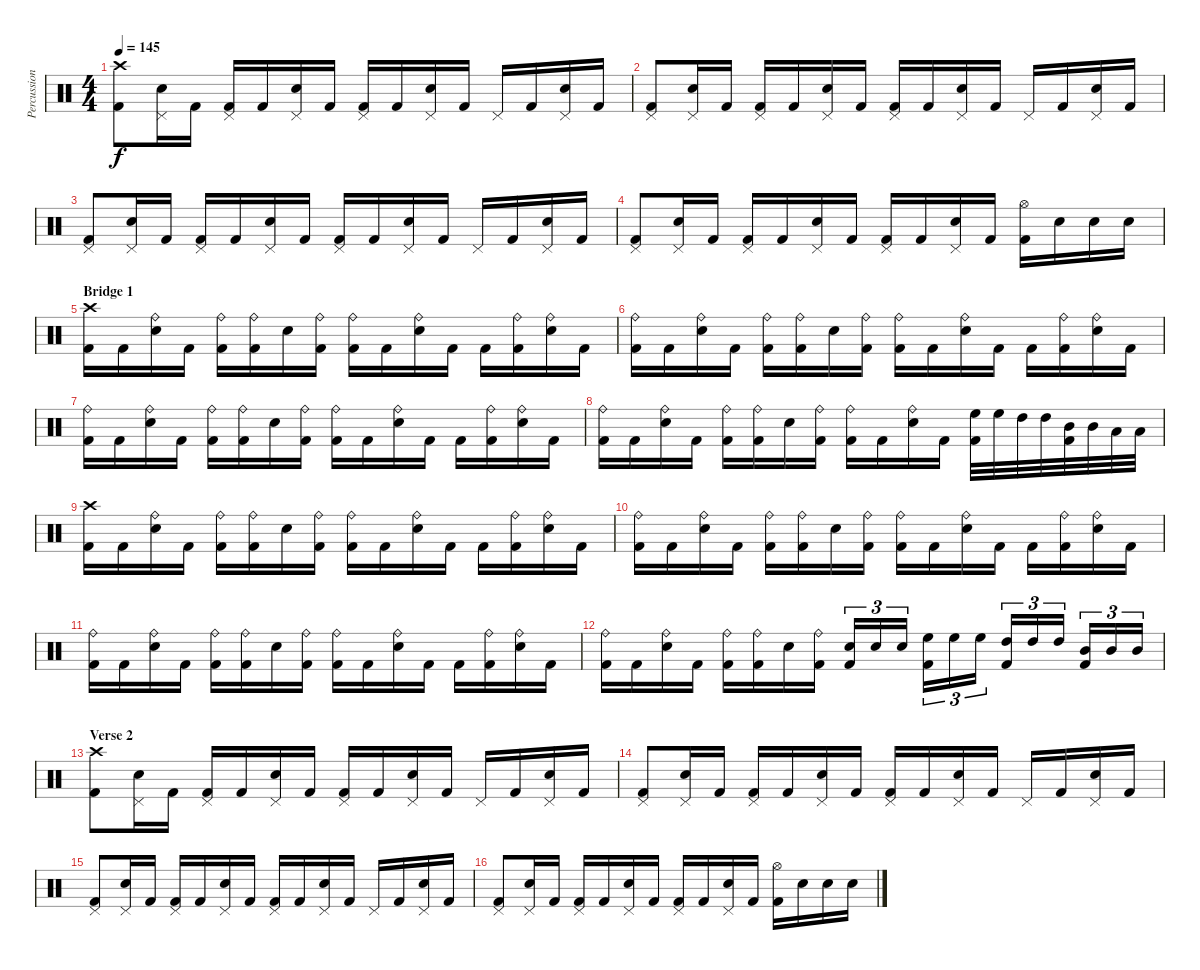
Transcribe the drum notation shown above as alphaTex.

\track ("Percussion" "Percussion") {instrument percussion}
\staff {score}
\articulation defaults
\ts (4 4)
\tempo 145
\clef neutral
\ks c
("Kick (hit) 2" "Crash high (hit)").8{dy f} ("Electric Snare (hit)" "Pedal Hi-Hat (hit)").16 "Kick (hit) 2".16 ("Kick (hit) 2" "Pedal Hi-Hat (hit)").16 "Kick (hit) 2".16 ("Electric Snare (hit)" "Pedal Hi-Hat (hit)").16 "Kick (hit) 2".16 ("Kick (hit) 2" "Pedal Hi-Hat (hit)").16 "Kick (hit) 2".16 ("Electric Snare (hit)" "Pedal Hi-Hat (hit)").16 "Kick (hit) 2".16 "Pedal Hi-Hat (hit)".16 "Kick (hit) 2".16 ("Electric Snare (hit)" "Pedal Hi-Hat (hit)").16 "Kick (hit) 2".16 |
("Kick (hit) 2" "Pedal Hi-Hat (hit)").8 ("Electric Snare (hit)" "Pedal Hi-Hat (hit)").16 "Kick (hit) 2".16 ("Kick (hit) 2" "Pedal Hi-Hat (hit)").16 "Kick (hit) 2".16 ("Electric Snare (hit)" "Pedal Hi-Hat (hit)").16 "Kick (hit) 2".16 ("Kick (hit) 2" "Pedal Hi-Hat (hit)").16 "Kick (hit) 2".16 ("Electric Snare (hit)" "Pedal Hi-Hat (hit)").16 "Kick (hit) 2".16 "Pedal Hi-Hat (hit)".16 "Kick (hit) 2".16 ("Electric Snare (hit)" "Pedal Hi-Hat (hit)").16 "Kick (hit) 2".16 |
("Kick (hit) 2" "Pedal Hi-Hat (hit)").8 ("Electric Snare (hit)" "Pedal Hi-Hat (hit)").16 "Kick (hit) 2".16 ("Kick (hit) 2" "Pedal Hi-Hat (hit)").16 "Kick (hit) 2".16 ("Electric Snare (hit)" "Pedal Hi-Hat (hit)").16 "Kick (hit) 2".16 ("Kick (hit) 2" "Pedal Hi-Hat (hit)").16 "Kick (hit) 2".16 ("Electric Snare (hit)" "Pedal Hi-Hat (hit)").16 "Kick (hit) 2".16 "Pedal Hi-Hat (hit)".16 "Kick (hit) 2".16 ("Electric Snare (hit)" "Pedal Hi-Hat (hit)").16 "Kick (hit) 2".16 |
("Kick (hit) 2" "Pedal Hi-Hat (hit)").8 ("Electric Snare (hit)" "Pedal Hi-Hat (hit)").16 "Kick (hit) 2".16 ("Kick (hit) 2" "Pedal Hi-Hat (hit)").16 "Kick (hit) 2".16 ("Electric Snare (hit)" "Pedal Hi-Hat (hit)").16 "Kick (hit) 2".16 ("Kick (hit) 2" "Pedal Hi-Hat (hit)").16 "Kick (hit) 2".16 ("Electric Snare (hit)" "Pedal Hi-Hat (hit)").16 "Kick (hit) 2".16 ("Kick (hit) 2" "Hi-Hat (open)").16 "Electric Snare (hit)".16 "Electric Snare (hit)".16 "Electric Snare (hit)".16 |
\section ("" "Bridge 1")
("Kick (hit) 2" "Crash high (hit)").16 "Kick (hit) 2".16 ("Electric Snare (hit)" "Ride (bell)").16 "Kick (hit) 2".16 ("Kick (hit) 2" "Ride (bell)").16 ("Kick (hit) 2" "Ride (bell)").16 "Electric Snare (hit)".16 ("Kick (hit) 2" "Ride (bell)").16 ("Kick (hit) 2" "Ride (bell)").16 "Kick (hit) 2".16 ("Electric Snare (hit)" "Ride (bell)").16 "Kick (hit) 2".16 "Kick (hit) 2".16 ("Kick (hit) 2" "Ride (bell)").16 ("Electric Snare (hit)" "Ride (bell)").16 "Kick (hit) 2".16 |
("Kick (hit) 2" "Ride (bell)").16 "Kick (hit) 2".16 ("Electric Snare (hit)" "Ride (bell)").16 "Kick (hit) 2".16 ("Kick (hit) 2" "Ride (bell)").16 ("Kick (hit) 2" "Ride (bell)").16 "Electric Snare (hit)".16 ("Kick (hit) 2" "Ride (bell)").16 ("Kick (hit) 2" "Ride (bell)").16 "Kick (hit) 2".16 ("Electric Snare (hit)" "Ride (bell)").16 "Kick (hit) 2".16 "Kick (hit) 2".16 ("Kick (hit) 2" "Ride (bell)").16 ("Electric Snare (hit)" "Ride (bell)").16 "Kick (hit) 2".16 |
("Kick (hit) 2" "Ride (bell)").16 "Kick (hit) 2".16 ("Electric Snare (hit)" "Ride (bell)").16 "Kick (hit) 2".16 ("Kick (hit) 2" "Ride (bell)").16 ("Kick (hit) 2" "Ride (bell)").16 "Electric Snare (hit)".16 ("Kick (hit) 2" "Ride (bell)").16 ("Kick (hit) 2" "Ride (bell)").16 "Kick (hit) 2".16 ("Electric Snare (hit)" "Ride (bell)").16 "Kick (hit) 2".16 "Kick (hit) 2".16 ("Kick (hit) 2" "Ride (bell)").16 ("Electric Snare (hit)" "Ride (bell)").16 "Kick (hit) 2".16 |
("Kick (hit) 2" "Ride (bell)").16 "Kick (hit) 2".16 ("Electric Snare (hit)" "Ride (bell)").16 "Kick (hit) 2".16 ("Kick (hit) 2" "Ride (bell)").16 ("Kick (hit) 2" "Ride (bell)").16 "Electric Snare (hit)".16 ("Kick (hit) 2" "Ride (bell)").16 ("Kick (hit) 2" "Ride (bell)").16 "Kick (hit) 2".16 ("Electric Snare (hit)" "Ride (bell)").16 "Kick (hit) 2".16 ("High Floor Tom (hit)" "Kick (hit) 2").32 "High Floor Tom (hit)".32 "High Tom (hit)".32 "High Tom (hit)".32 ("Mid Tom (hit)" "Kick (hit) 2").32 "Mid Tom (hit)".32 "Low Tom (hit)".32 "Low Tom (hit)".32 |
("Kick (hit) 2" "Crash high (hit)").16 "Kick (hit) 2".16 ("Electric Snare (hit)" "Ride (bell)").16 "Kick (hit) 2".16 ("Kick (hit) 2" "Ride (bell)").16 ("Kick (hit) 2" "Ride (bell)").16 "Electric Snare (hit)".16 ("Kick (hit) 2" "Ride (bell)").16 ("Kick (hit) 2" "Ride (bell)").16 "Kick (hit) 2".16 ("Electric Snare (hit)" "Ride (bell)").16 "Kick (hit) 2".16 "Kick (hit) 2".16 ("Kick (hit) 2" "Ride (bell)").16 ("Electric Snare (hit)" "Ride (bell)").16 "Kick (hit) 2".16 |
("Kick (hit) 2" "Ride (bell)").16 "Kick (hit) 2".16 ("Electric Snare (hit)" "Ride (bell)").16 "Kick (hit) 2".16 ("Kick (hit) 2" "Ride (bell)").16 ("Kick (hit) 2" "Ride (bell)").16 "Electric Snare (hit)".16 ("Kick (hit) 2" "Ride (bell)").16 ("Kick (hit) 2" "Ride (bell)").16 "Kick (hit) 2".16 ("Electric Snare (hit)" "Ride (bell)").16 "Kick (hit) 2".16 "Kick (hit) 2".16 ("Kick (hit) 2" "Ride (bell)").16 ("Electric Snare (hit)" "Ride (bell)").16 "Kick (hit) 2".16 |
("Kick (hit) 2" "Ride (bell)").16 "Kick (hit) 2".16 ("Electric Snare (hit)" "Ride (bell)").16 "Kick (hit) 2".16 ("Kick (hit) 2" "Ride (bell)").16 ("Kick (hit) 2" "Ride (bell)").16 "Electric Snare (hit)".16 ("Kick (hit) 2" "Ride (bell)").16 ("Kick (hit) 2" "Ride (bell)").16 "Kick (hit) 2".16 ("Electric Snare (hit)" "Ride (bell)").16 "Kick (hit) 2".16 "Kick (hit) 2".16 ("Kick (hit) 2" "Ride (bell)").16 ("Electric Snare (hit)" "Ride (bell)").16 "Kick (hit) 2".16 |
("Kick (hit) 2" "Ride (bell)").16 "Kick (hit) 2".16 ("Electric Snare (hit)" "Ride (bell)").16 "Kick (hit) 2".16 ("Kick (hit) 2" "Ride (bell)").16 ("Kick (hit) 2" "Ride (bell)").16 "Electric Snare (hit)".16 ("Kick (hit) 2" "Ride (bell)").16 ("Electric Snare (hit)" "Kick (hit) 2").16{tu (3 2)} "Electric Snare (hit)".16{tu (3 2)} "Electric Snare (hit)".16{tu (3 2)} ("High Floor Tom (hit)" "Kick (hit) 2").16{tu (3 2)} "High Floor Tom (hit)".16{tu (3 2)} "High Floor Tom (hit)".16{tu (3 2)} ("High Tom (hit)" "Kick (hit) 2").16{tu (3 2)} "High Tom (hit)".16{tu (3 2)} "High Tom (hit)".16{tu (3 2)} ("Mid Tom (hit)" "Kick (hit) 2").16{tu (3 2)} "Mid Tom (hit)".16{tu (3 2)} "Mid Tom (hit)".16{tu (3 2)} |
\section ("" "Verse 2")
("Kick (hit) 2" "Crash high (hit)").8 ("Electric Snare (hit)" "Pedal Hi-Hat (hit)").16 "Kick (hit) 2".16 ("Kick (hit) 2" "Pedal Hi-Hat (hit)").16 "Kick (hit) 2".16 ("Electric Snare (hit)" "Pedal Hi-Hat (hit)").16 "Kick (hit) 2".16 ("Kick (hit) 2" "Pedal Hi-Hat (hit)").16 "Kick (hit) 2".16 ("Electric Snare (hit)" "Pedal Hi-Hat (hit)").16 "Kick (hit) 2".16 "Pedal Hi-Hat (hit)".16 "Kick (hit) 2".16 ("Electric Snare (hit)" "Pedal Hi-Hat (hit)").16 "Kick (hit) 2".16 |
("Kick (hit) 2" "Pedal Hi-Hat (hit)").8 ("Electric Snare (hit)" "Pedal Hi-Hat (hit)").16 "Kick (hit) 2".16 ("Kick (hit) 2" "Pedal Hi-Hat (hit)").16 "Kick (hit) 2".16 ("Electric Snare (hit)" "Pedal Hi-Hat (hit)").16 "Kick (hit) 2".16 ("Kick (hit) 2" "Pedal Hi-Hat (hit)").16 "Kick (hit) 2".16 ("Electric Snare (hit)" "Pedal Hi-Hat (hit)").16 "Kick (hit) 2".16 "Pedal Hi-Hat (hit)".16 "Kick (hit) 2".16 ("Electric Snare (hit)" "Pedal Hi-Hat (hit)").16 "Kick (hit) 2".16 |
("Kick (hit) 2" "Pedal Hi-Hat (hit)").8 ("Electric Snare (hit)" "Pedal Hi-Hat (hit)").16 "Kick (hit) 2".16 ("Kick (hit) 2" "Pedal Hi-Hat (hit)").16 "Kick (hit) 2".16 ("Electric Snare (hit)" "Pedal Hi-Hat (hit)").16 "Kick (hit) 2".16 ("Kick (hit) 2" "Pedal Hi-Hat (hit)").16 "Kick (hit) 2".16 ("Electric Snare (hit)" "Pedal Hi-Hat (hit)").16 "Kick (hit) 2".16 "Pedal Hi-Hat (hit)".16 "Kick (hit) 2".16 ("Electric Snare (hit)" "Pedal Hi-Hat (hit)").16 "Kick (hit) 2".16 |
("Kick (hit) 2" "Pedal Hi-Hat (hit)").8 ("Electric Snare (hit)" "Pedal Hi-Hat (hit)").16 "Kick (hit) 2".16 ("Kick (hit) 2" "Pedal Hi-Hat (hit)").16 "Kick (hit) 2".16 ("Electric Snare (hit)" "Pedal Hi-Hat (hit)").16 "Kick (hit) 2".16 ("Kick (hit) 2" "Pedal Hi-Hat (hit)").16 "Kick (hit) 2".16 ("Electric Snare (hit)" "Pedal Hi-Hat (hit)").16 "Kick (hit) 2".16 ("Kick (hit) 2" "Hi-Hat (open)").16 "Electric Snare (hit)".16 "Electric Snare (hit)".16 "Electric Snare (hit)".16
